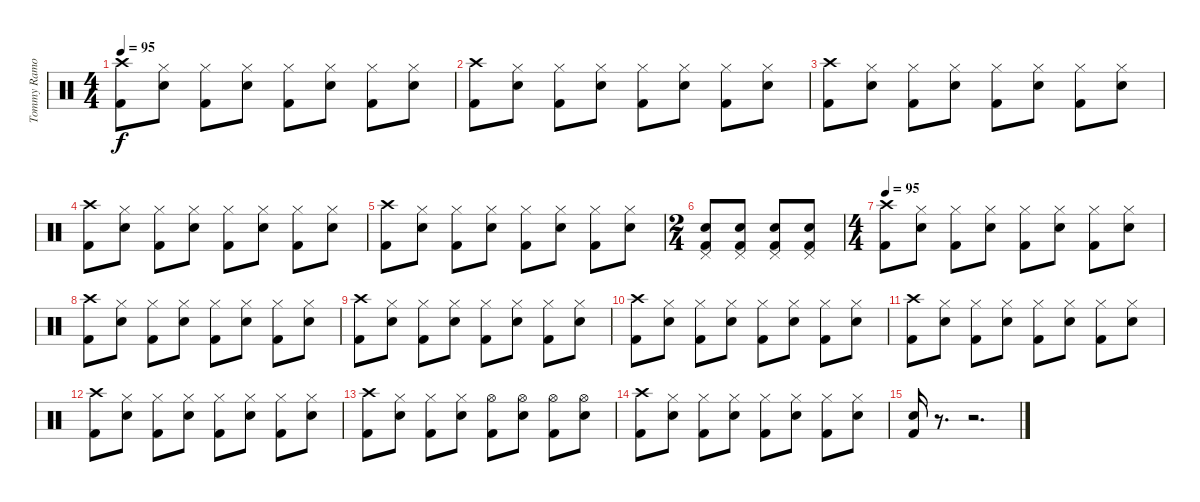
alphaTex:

\track ("Tommy Ramone (Drums)" "Tommy Ramo") {instrument percussion}
\staff {score}
\articulation defaults
\ts (4 4)
\tempo 95
\clef neutral
\ks c
("Crash high (hit)" "Kick (hit) 2").8{dy f} ("Hi-Hat (closed)" "Snare (hit) 2").8 ("Hi-Hat (closed)" "Kick (hit) 2").8 ("Hi-Hat (closed)" "Snare (hit) 2").8 ("Hi-Hat (closed)" "Kick (hit) 2").8 ("Hi-Hat (closed)" "Snare (hit) 2").8 ("Hi-Hat (closed)" "Kick (hit) 2").8 ("Hi-Hat (closed)" "Snare (hit) 2").8 |
("Crash high (hit)" "Kick (hit) 2").8 ("Hi-Hat (closed)" "Snare (hit) 2").8 ("Hi-Hat (closed)" "Kick (hit) 2").8 ("Hi-Hat (closed)" "Snare (hit) 2").8 ("Hi-Hat (closed)" "Kick (hit) 2").8 ("Hi-Hat (closed)" "Snare (hit) 2").8 ("Hi-Hat (closed)" "Kick (hit) 2").8 ("Hi-Hat (closed)" "Snare (hit) 2").8 |
("Crash high (hit)" "Kick (hit) 2").8 ("Hi-Hat (closed)" "Snare (hit) 2").8 ("Hi-Hat (closed)" "Kick (hit) 2").8 ("Hi-Hat (closed)" "Snare (hit) 2").8 ("Hi-Hat (closed)" "Kick (hit) 2").8 ("Hi-Hat (closed)" "Snare (hit) 2").8 ("Hi-Hat (closed)" "Kick (hit) 2").8 ("Hi-Hat (closed)" "Snare (hit) 2").8 |
("Crash high (hit)" "Kick (hit) 2").8 ("Hi-Hat (closed)" "Snare (hit) 2").8 ("Hi-Hat (closed)" "Kick (hit) 2").8 ("Hi-Hat (closed)" "Snare (hit) 2").8 ("Hi-Hat (closed)" "Kick (hit) 2").8 ("Hi-Hat (closed)" "Snare (hit) 2").8 ("Hi-Hat (closed)" "Kick (hit) 2").8 ("Hi-Hat (closed)" "Snare (hit) 2").8 |
("Crash high (hit)" "Kick (hit) 2").8 ("Hi-Hat (closed)" "Snare (hit) 2").8 ("Hi-Hat (closed)" "Kick (hit) 2").8 ("Hi-Hat (closed)" "Snare (hit) 2").8 ("Hi-Hat (closed)" "Kick (hit) 2").8 ("Hi-Hat (closed)" "Snare (hit) 2").8 ("Hi-Hat (closed)" "Kick (hit) 2").8 ("Hi-Hat (closed)" "Snare (hit) 2").8 |
\ts (2 4)
("Snare (hit) 2" "Pedal Hi-Hat (hit)" "Kick (hit) 2").8 ("Snare (hit) 2" "Pedal Hi-Hat (hit)" "Kick (hit) 2").8 ("Snare (hit) 2" "Pedal Hi-Hat (hit)" "Kick (hit) 2").8 ("Snare (hit) 2" "Pedal Hi-Hat (hit)" "Kick (hit) 2").8 |
\ts (4 4)
\tempo 95
("Crash high (hit)" "Kick (hit) 2").8 ("Hi-Hat (closed)" "Snare (hit) 2").8 ("Hi-Hat (closed)" "Kick (hit) 2").8 ("Hi-Hat (closed)" "Snare (hit) 2").8 ("Hi-Hat (closed)" "Kick (hit) 2").8 ("Hi-Hat (closed)" "Snare (hit) 2").8 ("Hi-Hat (closed)" "Kick (hit) 2").8 ("Hi-Hat (closed)" "Snare (hit) 2").8 |
("Crash high (hit)" "Kick (hit) 2").8 ("Hi-Hat (closed)" "Snare (hit) 2").8 ("Hi-Hat (closed)" "Kick (hit) 2").8 ("Hi-Hat (closed)" "Snare (hit) 2").8 ("Hi-Hat (closed)" "Kick (hit) 2").8 ("Hi-Hat (closed)" "Snare (hit) 2").8 ("Hi-Hat (closed)" "Kick (hit) 2").8 ("Hi-Hat (closed)" "Snare (hit) 2").8 |
("Crash high (hit)" "Kick (hit) 2").8 ("Hi-Hat (closed)" "Snare (hit) 2").8 ("Hi-Hat (closed)" "Kick (hit) 2").8 ("Hi-Hat (closed)" "Snare (hit) 2").8 ("Hi-Hat (closed)" "Kick (hit) 2").8 ("Hi-Hat (closed)" "Snare (hit) 2").8 ("Hi-Hat (closed)" "Kick (hit) 2").8 ("Hi-Hat (closed)" "Snare (hit) 2").8 |
("Crash high (hit)" "Kick (hit) 2").8 ("Hi-Hat (closed)" "Snare (hit) 2").8 ("Hi-Hat (closed)" "Kick (hit) 2").8 ("Hi-Hat (closed)" "Snare (hit) 2").8 ("Hi-Hat (closed)" "Kick (hit) 2").8 ("Hi-Hat (closed)" "Snare (hit) 2").8 ("Hi-Hat (closed)" "Kick (hit) 2").8 ("Hi-Hat (closed)" "Snare (hit) 2").8 |
("Crash high (hit)" "Kick (hit) 2").8 ("Hi-Hat (closed)" "Snare (hit) 2").8 ("Hi-Hat (closed)" "Kick (hit) 2").8 ("Hi-Hat (closed)" "Snare (hit) 2").8 ("Hi-Hat (closed)" "Kick (hit) 2").8 ("Hi-Hat (closed)" "Snare (hit) 2").8 ("Hi-Hat (closed)" "Kick (hit) 2").8 ("Hi-Hat (closed)" "Snare (hit) 2").8 |
("Crash high (hit)" "Kick (hit) 2").8 ("Hi-Hat (closed)" "Snare (hit) 2").8 ("Hi-Hat (closed)" "Kick (hit) 2").8 ("Hi-Hat (closed)" "Snare (hit) 2").8 ("Hi-Hat (closed)" "Kick (hit) 2").8 ("Hi-Hat (closed)" "Snare (hit) 2").8 ("Hi-Hat (closed)" "Kick (hit) 2").8 ("Hi-Hat (closed)" "Snare (hit) 2").8 |
("Crash high (hit)" "Kick (hit) 2").8 ("Hi-Hat (closed)" "Snare (hit) 2").8 ("Hi-Hat (closed)" "Kick (hit) 2").8 ("Hi-Hat (closed)" "Snare (hit) 2").8 ("Hi-Hat (open)" "Kick (hit) 2").8 ("Hi-Hat (open)" "Snare (hit) 2").8 ("Hi-Hat (open)" "Kick (hit) 2").8 ("Hi-Hat (open)" "Snare (hit) 2").8 |
("Crash high (hit)" "Kick (hit) 2").8 ("Hi-Hat (closed)" "Snare (hit) 2").8 ("Hi-Hat (closed)" "Kick (hit) 2").8 ("Hi-Hat (closed)" "Snare (hit) 2").8 ("Hi-Hat (closed)" "Kick (hit) 2").8 ("Hi-Hat (closed)" "Snare (hit) 2").8 ("Hi-Hat (closed)" "Kick (hit) 2").8 ("Hi-Hat (closed)" "Snare (hit) 2").8 |
("Snare (hit) 2" "Kick (hit) 2").16 r.8{d} r.2{d}
